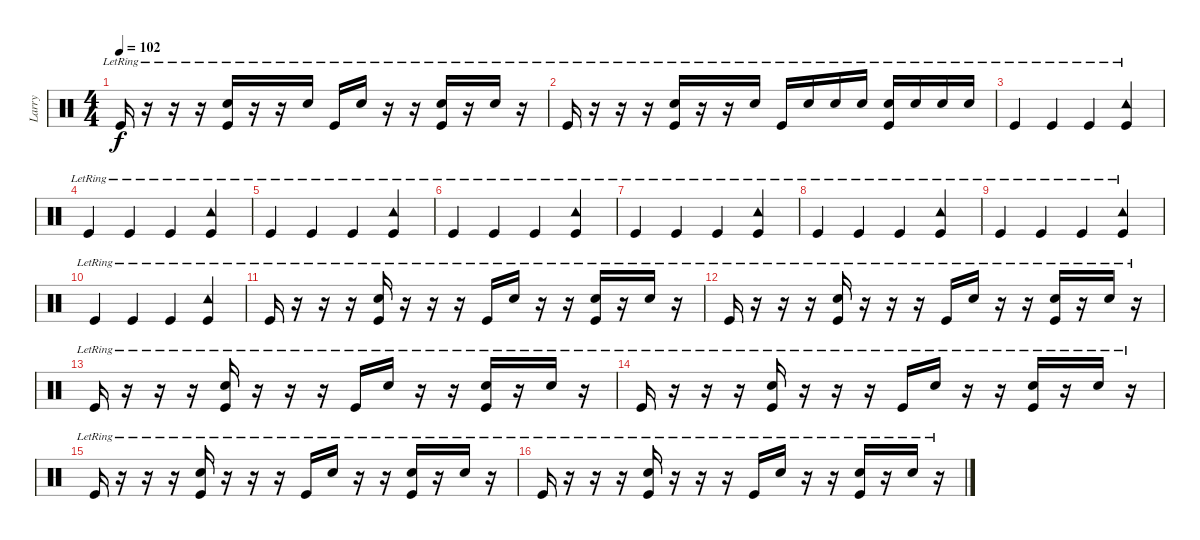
\track ("Larry" "Larry") {instrument percussion}
\staff {score}
\articulation defaults
\ts (4 4)
\tempo 102
\clef neutral
\ks c "Kick (hit)"{lr}.16{dy f}
r.16 r.16 r.16 ("Snare (hit) 2"{lr} "Kick (hit)"{lr}).16 r.16 r.16 "Snare (hit) 2"{lr}.16 "Kick (hit)"{lr}.16 "Snare (hit) 2"{lr}.16 r.16 r.16 ("Snare (hit) 2"{lr} "Kick (hit)"{lr}).16 r.16 "Snare (hit) 2"{lr}.16 r.16 |
"Kick (hit)"{lr}.16 r.16 r.16 r.16 ("Snare (hit) 2"{lr} "Kick (hit)"{lr}).16 r.16 r.16 "Snare (hit) 2"{lr}.16 "Kick (hit)"{lr}.16 "Snare (hit) 2"{lr}.16 "Snare (hit) 2"{lr}.16 "Snare (hit) 2"{lr}.16 ("Snare (hit) 2"{lr} "Kick (hit)"{lr}).16 "Snare (hit) 2"{lr}.16 "Snare (hit) 2"{lr}.16 "Snare (hit) 2"{lr}.16 |
"Kick (hit)"{lr}.4 "Kick (hit)"{lr}.4 "Kick (hit)"{lr}.4 ("Tambourine (hit)"{lr} "Kick (hit)"{lr}).4 |
"Kick (hit)"{lr}.4 "Kick (hit)"{lr}.4 "Kick (hit)"{lr}.4 ("Tambourine (hit)"{lr} "Kick (hit)"{lr}).4 |
"Kick (hit)"{lr}.4 "Kick (hit)"{lr}.4 "Kick (hit)"{lr}.4 ("Tambourine (hit)"{lr} "Kick (hit)"{lr}).4 |
"Kick (hit)"{lr}.4 "Kick (hit)"{lr}.4 "Kick (hit)"{lr}.4 ("Tambourine (hit)"{lr} "Kick (hit)"{lr}).4 |
"Kick (hit)"{lr}.4 "Kick (hit)"{lr}.4 "Kick (hit)"{lr}.4 ("Tambourine (hit)"{lr} "Kick (hit)"{lr}).4 |
"Kick (hit)"{lr}.4 "Kick (hit)"{lr}.4 "Kick (hit)"{lr}.4 ("Tambourine (hit)"{lr} "Kick (hit)"{lr}).4 |
"Kick (hit)"{lr}.4 "Kick (hit)"{lr}.4 "Kick (hit)"{lr}.4 ("Tambourine (hit)"{lr} "Kick (hit)"{lr}).4 |
"Kick (hit)"{lr}.4 "Kick (hit)"{lr}.4 "Kick (hit)"{lr}.4 ("Tambourine (hit)"{lr} "Kick (hit)"{lr}).4 |
"Kick (hit)"{lr}.16 r.16 r.16 r.16 ("Snare (hit) 2"{lr} "Kick (hit)"{lr}).16 r.16 r.16 r.16 "Kick (hit)"{lr}.16 "Snare (hit) 2"{lr}.16 r.16 r.16 ("Snare (hit) 2"{lr} "Kick (hit)"{lr}).16 r.16 "Snare (hit) 2"{lr}.16 r.16 |
"Kick (hit)"{lr}.16 r.16 r.16 r.16 ("Snare (hit) 2"{lr} "Kick (hit)"{lr}).16 r.16 r.16 r.16 "Kick (hit)"{lr}.16 "Snare (hit) 2"{lr}.16 r.16 r.16 ("Snare (hit) 2"{lr} "Kick (hit)"{lr}).16 r.16 "Snare (hit) 2"{lr}.16 r.16 |
"Kick (hit)"{lr}.16 r.16 r.16 r.16 ("Snare (hit) 2"{lr} "Kick (hit)"{lr}).16 r.16 r.16 r.16 "Kick (hit)"{lr}.16 "Snare (hit) 2"{lr}.16 r.16 r.16 ("Snare (hit) 2"{lr} "Kick (hit)"{lr}).16 r.16 "Snare (hit) 2"{lr}.16 r.16 |
"Kick (hit)"{lr}.16 r.16 r.16 r.16 ("Snare (hit) 2"{lr} "Kick (hit)"{lr}).16 r.16 r.16 r.16 "Kick (hit)"{lr}.16 "Snare (hit) 2"{lr}.16 r.16 r.16 ("Snare (hit) 2"{lr} "Kick (hit)"{lr}).16 r.16 "Snare (hit) 2"{lr}.16 r.16 |
"Kick (hit)"{lr}.16 r.16 r.16 r.16 ("Snare (hit) 2"{lr} "Kick (hit)"{lr}).16 r.16 r.16 r.16 "Kick (hit)"{lr}.16 "Snare (hit) 2"{lr}.16 r.16 r.16 ("Snare (hit) 2"{lr} "Kick (hit)"{lr}).16 r.16 "Snare (hit) 2"{lr}.16 r.16 |
"Kick (hit)"{lr}.16 r.16 r.16 r.16 ("Snare (hit) 2"{lr} "Kick (hit)"{lr}).16 r.16 r.16 r.16 "Kick (hit)"{lr}.16 "Snare (hit) 2"{lr}.16 r.16 r.16 ("Snare (hit) 2"{lr} "Kick (hit)"{lr}).16 r.16 "Snare (hit) 2"{lr}.16 r.16
